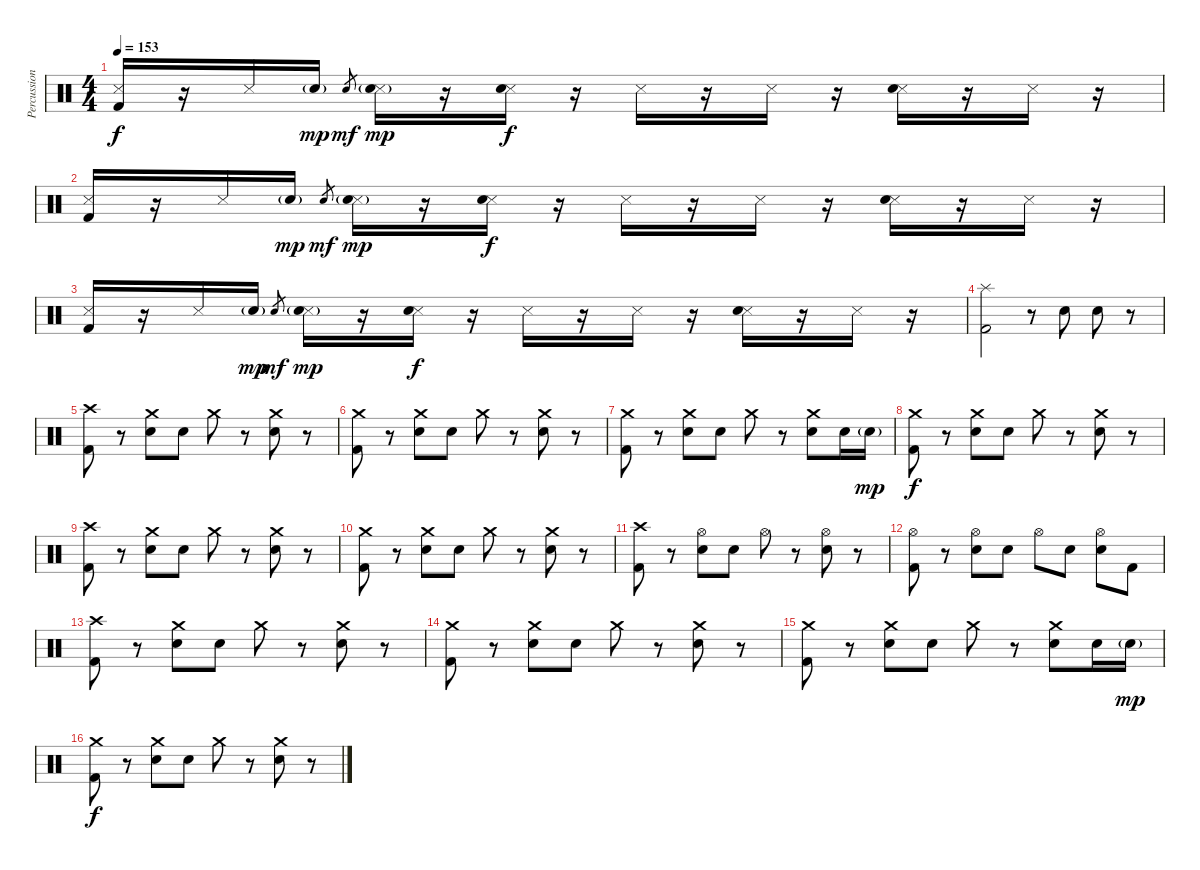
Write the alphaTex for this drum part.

\track ("Percussion" "Percussion") {instrument percussion}
\staff {score}
\articulation defaults
\ts (4 4)
\tempo 153
\clef neutral
\ks c
("Snare (side stick) 3" "Kick (hit) 2").16{dy f} r.16 "Snare (side stick) 3".16 "Electric Snare (hit)"{g}.16{dy mp} "Electric Snare (hit)".8{gr dy mf} ("Snare (side stick) 3" "Electric Snare (hit)"{g}).16{dy mp} r.16 ("Snare (side stick) 3" "Electric Snare (hit)").16{dy f} r.16 "Snare (side stick) 3".16 r.16 "Snare (side stick) 3".16 r.16 ("Snare (side stick) 3" "Electric Snare (hit)").16 r.16 "Snare (side stick) 3".16 r.16 |
("Snare (side stick) 3" "Kick (hit) 2").16 r.16 "Snare (side stick) 3".16 "Electric Snare (hit)"{g}.16{dy mp} "Electric Snare (hit)".8{gr dy mf} ("Snare (side stick) 3" "Electric Snare (hit)"{g}).16{dy mp} r.16 ("Snare (side stick) 3" "Electric Snare (hit)").16{dy f} r.16 "Snare (side stick) 3".16 r.16 "Snare (side stick) 3".16 r.16 ("Snare (side stick) 3" "Electric Snare (hit)").16 r.16 "Snare (side stick) 3".16 r.16 |
("Snare (side stick) 3" "Kick (hit) 2").16 r.16 "Snare (side stick) 3".16 "Electric Snare (hit)"{g}.16{dy mp} "Electric Snare (hit)".8{gr dy mf} ("Snare (side stick) 3" "Electric Snare (hit)"{g}).16{dy mp} r.16 ("Snare (side stick) 3" "Electric Snare (hit)").16{dy f} r.16 "Snare (side stick) 3".16 r.16 "Snare (side stick) 3".16 r.16 ("Snare (side stick) 3" "Electric Snare (hit)").16 r.16 "Snare (side stick) 3".16 r.16 |
("Splash (hit)" "Kick (hit) 2").2 r.8 "Electric Snare (hit)".8 "Electric Snare (hit)".8 r.8 |
\section ("" "")
("Crash high (hit)" "Kick (hit) 2").8 r.8 ("Crash medium (hit)" "Electric Snare (hit)").8 "Electric Snare (hit)".8 "Crash medium (hit)".8 r.8 ("Crash medium (hit)" "Electric Snare (hit)").8 r.8 |
("Crash medium (hit)" "Kick (hit) 2").8 r.8 ("Crash medium (hit)" "Electric Snare (hit)").8 "Electric Snare (hit)".8 "Crash medium (hit)".8 r.8 ("Crash medium (hit)" "Electric Snare (hit)").8 r.8 |
("Crash medium (hit)" "Kick (hit) 2").8 r.8 ("Crash medium (hit)" "Electric Snare (hit)").8 "Electric Snare (hit)".8 "Crash medium (hit)".8 r.8 ("Crash medium (hit)" "Electric Snare (hit)").8 "Electric Snare (hit)".16 "Electric Snare (hit)"{g}.16{dy mp} |
("Crash medium (hit)" "Kick (hit) 2").8{dy f} r.8 ("Crash medium (hit)" "Electric Snare (hit)").8 "Electric Snare (hit)".8 "Crash medium (hit)".8 r.8 ("Crash medium (hit)" "Electric Snare (hit)").8 r.8 |
("Crash high (hit)" "Kick (hit) 2").8 r.8 ("Crash medium (hit)" "Electric Snare (hit)").8 "Electric Snare (hit)".8 "Crash medium (hit)".8 r.8 ("Crash medium (hit)" "Electric Snare (hit)").8 r.8 |
("Crash medium (hit)" "Kick (hit) 2").8 r.8 ("Crash medium (hit)" "Electric Snare (hit)").8 "Electric Snare (hit)".8 "Crash medium (hit)".8 r.8 ("Crash medium (hit)" "Electric Snare (hit)").8 r.8 |
("Crash high (hit)" "Kick (hit) 2").8 r.8 ("Hi-Hat (open)" "Electric Snare (hit)").8 "Electric Snare (hit)".8 "Hi-Hat (open)".8 r.8 ("Hi-Hat (open)" "Electric Snare (hit)").8 r.8 |
("Hi-Hat (open)" "Kick (hit) 2").8 r.8 ("Hi-Hat (open)" "Electric Snare (hit)").8 "Electric Snare (hit)".8 "Hi-Hat (open)".8 "Electric Snare (hit)".8 ("Hi-Hat (open)" "Electric Snare (hit)").8 "Kick (hit) 2".8 |
("Crash high (hit)" "Kick (hit) 2").8 r.8 ("Crash medium (hit)" "Electric Snare (hit)").8 "Electric Snare (hit)".8 "Crash medium (hit)".8 r.8 ("Crash medium (hit)" "Electric Snare (hit)").8 r.8 |
("Crash medium (hit)" "Kick (hit) 2").8 r.8 ("Crash medium (hit)" "Electric Snare (hit)").8 "Electric Snare (hit)".8 "Crash medium (hit)".8 r.8 ("Crash medium (hit)" "Electric Snare (hit)").8 r.8 |
("Crash medium (hit)" "Kick (hit) 2").8 r.8 ("Crash medium (hit)" "Electric Snare (hit)").8 "Electric Snare (hit)".8 "Crash medium (hit)".8 r.8 ("Crash medium (hit)" "Electric Snare (hit)").8 "Electric Snare (hit)".16 "Electric Snare (hit)"{g}.16{dy mp} |
("Crash medium (hit)" "Kick (hit) 2").8{dy f} r.8 ("Crash medium (hit)" "Electric Snare (hit)").8 "Electric Snare (hit)".8 "Crash medium (hit)".8 r.8 ("Crash medium (hit)" "Electric Snare (hit)").8 r.8
